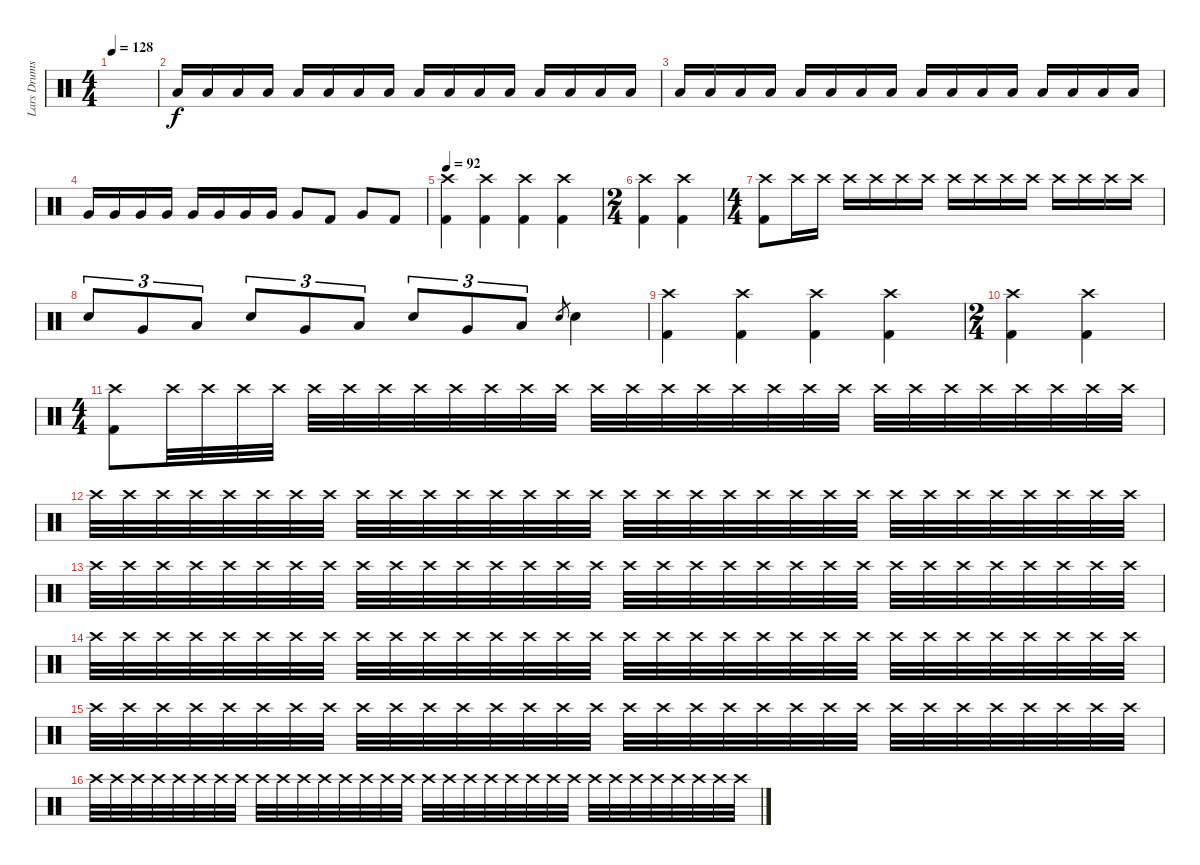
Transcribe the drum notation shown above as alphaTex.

\track ("Lars Drums" "Lars Drums") {instrument percussion}
\staff {score}
\articulation defaults
\ts (4 4)
\tempo 128
\clef neutral
\ks c
|
"Low Floor Tom (hit)".16 "Low Floor Tom (hit)".16 "Low Floor Tom (hit)".16 "Low Floor Tom (hit)".16 "Low Floor Tom (hit)".16 "Low Floor Tom (hit)".16 "Low Floor Tom (hit)".16 "Low Floor Tom (hit)".16 "Low Floor Tom (hit)".16 "Low Floor Tom (hit)".16 "Low Floor Tom (hit)".16 "Low Floor Tom (hit)".16 "Low Floor Tom (hit)".16 "Low Floor Tom (hit)".16 "Low Floor Tom (hit)".16 "Low Floor Tom (hit)".16 |
"Low Floor Tom (hit)".16 "Low Floor Tom (hit)".16 "Low Floor Tom (hit)".16 "Low Floor Tom (hit)".16 "Low Floor Tom (hit)".16 "Low Floor Tom (hit)".16 "Low Floor Tom (hit)".16 "Low Floor Tom (hit)".16 "Low Floor Tom (hit)".16 "Low Floor Tom (hit)".16 "Low Floor Tom (hit)".16 "Low Floor Tom (hit)".16 "Low Floor Tom (hit)".16 "Low Floor Tom (hit)".16 "Low Floor Tom (hit)".16 "Low Floor Tom (hit)".16 |
"Very Low Tom (hit)".16 "Very Low Tom (hit)".16 "Very Low Tom (hit)".16 "Very Low Tom (hit)".16 "Very Low Tom (hit)".16 "Very Low Tom (hit)".16 "Very Low Tom (hit)".16 "Very Low Tom (hit)".16 "Very Low Tom (hit)".8 "Kick (hit) 2".8 "Very Low Tom (hit)".8 "Kick (hit) 2".8 |
\tempo 92
("Crash high (hit)" "Kick (hit) 2").4 ("Crash high (hit)" "Kick (hit) 2").4 ("Crash high (hit)" "Kick (hit) 2").4 ("Crash high (hit)" "Kick (hit) 2").4 |
\ts (2 4)
("Crash high (hit)" "Kick (hit) 2").4 ("Crash high (hit)" "Kick (hit) 2").4 |
\ts (4 4)
("Crash high (hit)" "Kick (hit) 2").8 "Crash high (hit)".16 "Crash high (hit)".16 "Crash high (hit)".16 "Crash high (hit)".16 "Crash high (hit)".16 "Crash high (hit)".16 "Crash high (hit)".16 "Crash high (hit)".16 "Crash high (hit)".16 "Crash high (hit)".16 "Crash high (hit)".16 "Crash high (hit)".16 "Crash high (hit)".16 "Crash high (hit)".16 |
"Electric Snare (hit)".8{tu (3 2)} "Very Low Tom (hit)".8{tu (3 2)} "Low Floor Tom (hit)".8{tu (3 2)} "Electric Snare (hit)".8{tu (3 2)} "Very Low Tom (hit)".8{tu (3 2)} "Low Floor Tom (hit)".8{tu (3 2)} "Electric Snare (hit)".8{tu (3 2)} "Very Low Tom (hit)".8{tu (3 2)} "Low Floor Tom (hit)".8{tu (3 2)} "Electric Snare (hit)".8{gr} "Electric Snare (hit)".4 |
("Crash high (hit)" "Kick (hit) 2").4 ("Crash high (hit)" "Kick (hit) 2").4 ("Crash high (hit)" "Kick (hit) 2").4 ("Crash high (hit)" "Kick (hit) 2").4 |
\ts (2 4)
("Crash high (hit)" "Kick (hit) 2").4 ("Crash high (hit)" "Kick (hit) 2").4 |
\ts (4 4)
("Crash high (hit)" "Kick (hit) 2").8 "Crash high (hit)".32 "Crash high (hit)".32 "Crash high (hit)".32 "Crash high (hit)".32 "Crash high (hit)".32 "Crash high (hit)".32 "Crash high (hit)".32 "Crash high (hit)".32 "Crash high (hit)".32 "Crash high (hit)".32 "Crash high (hit)".32 "Crash high (hit)".32 "Crash high (hit)".32 "Crash high (hit)".32 "Crash high (hit)".32 "Crash high (hit)".32 "Crash high (hit)".32 "Crash high (hit)".32 "Crash high (hit)".32 "Crash high (hit)".32 "Crash high (hit)".32 "Crash high (hit)".32 "Crash high (hit)".32 "Crash high (hit)".32 "Crash high (hit)".32 "Crash high (hit)".32 "Crash high (hit)".32 "Crash high (hit)".32 |
"Crash high (hit)".32 "Crash high (hit)".32 "Crash high (hit)".32 "Crash high (hit)".32 "Crash high (hit)".32 "Crash high (hit)".32 "Crash high (hit)".32 "Crash high (hit)".32 "Crash high (hit)".32 "Crash high (hit)".32 "Crash high (hit)".32 "Crash high (hit)".32 "Crash high (hit)".32 "Crash high (hit)".32 "Crash high (hit)".32 "Crash high (hit)".32 "Crash high (hit)".32 "Crash high (hit)".32 "Crash high (hit)".32 "Crash high (hit)".32 "Crash high (hit)".32 "Crash high (hit)".32 "Crash high (hit)".32 "Crash high (hit)".32 "Crash high (hit)".32 "Crash high (hit)".32 "Crash high (hit)".32 "Crash high (hit)".32 "Crash high (hit)".32 "Crash high (hit)".32 "Crash high (hit)".32 "Crash high (hit)".32 |
"Crash high (hit)".32 "Crash high (hit)".32 "Crash high (hit)".32 "Crash high (hit)".32 "Crash high (hit)".32 "Crash high (hit)".32 "Crash high (hit)".32 "Crash high (hit)".32 "Crash high (hit)".32 "Crash high (hit)".32 "Crash high (hit)".32 "Crash high (hit)".32 "Crash high (hit)".32 "Crash high (hit)".32 "Crash high (hit)".32 "Crash high (hit)".32 "Crash high (hit)".32 "Crash high (hit)".32 "Crash high (hit)".32 "Crash high (hit)".32 "Crash high (hit)".32 "Crash high (hit)".32 "Crash high (hit)".32 "Crash high (hit)".32 "Crash high (hit)".32 "Crash high (hit)".32 "Crash high (hit)".32 "Crash high (hit)".32 "Crash high (hit)".32 "Crash high (hit)".32 "Crash high (hit)".32 "Crash high (hit)".32 |
"Crash high (hit)".32 "Crash high (hit)".32 "Crash high (hit)".32 "Crash high (hit)".32 "Crash high (hit)".32 "Crash high (hit)".32 "Crash high (hit)".32 "Crash high (hit)".32 "Crash high (hit)".32 "Crash high (hit)".32 "Crash high (hit)".32 "Crash high (hit)".32 "Crash high (hit)".32 "Crash high (hit)".32 "Crash high (hit)".32 "Crash high (hit)".32 "Crash high (hit)".32 "Crash high (hit)".32 "Crash high (hit)".32 "Crash high (hit)".32 "Crash high (hit)".32 "Crash high (hit)".32 "Crash high (hit)".32 "Crash high (hit)".32 "Crash high (hit)".32 "Crash high (hit)".32 "Crash high (hit)".32 "Crash high (hit)".32 "Crash high (hit)".32 "Crash high (hit)".32 "Crash high (hit)".32 "Crash high (hit)".32 |
"Crash high (hit)".32 "Crash high (hit)".32 "Crash high (hit)".32 "Crash high (hit)".32 "Crash high (hit)".32 "Crash high (hit)".32 "Crash high (hit)".32 "Crash high (hit)".32 "Crash high (hit)".32 "Crash high (hit)".32 "Crash high (hit)".32 "Crash high (hit)".32 "Crash high (hit)".32 "Crash high (hit)".32 "Crash high (hit)".32 "Crash high (hit)".32 "Crash high (hit)".32 "Crash high (hit)".32 "Crash high (hit)".32 "Crash high (hit)".32 "Crash high (hit)".32 "Crash high (hit)".32 "Crash high (hit)".32 "Crash high (hit)".32 "Crash high (hit)".32 "Crash high (hit)".32 "Crash high (hit)".32 "Crash high (hit)".32 "Crash high (hit)".32 "Crash high (hit)".32 "Crash high (hit)".32 "Crash high (hit)".32 |
"Crash high (hit)".32 "Crash high (hit)".32 "Crash high (hit)".32 "Crash high (hit)".32 "Crash high (hit)".32 "Crash high (hit)".32 "Crash high (hit)".32 "Crash high (hit)".32 "Crash high (hit)".32 "Crash high (hit)".32 "Crash high (hit)".32 "Crash high (hit)".32 "Crash high (hit)".32 "Crash high (hit)".32 "Crash high (hit)".32 "Crash high (hit)".32 "Crash high (hit)".32 "Crash high (hit)".32 "Crash high (hit)".32 "Crash high (hit)".32 "Crash high (hit)".32 "Crash high (hit)".32 "Crash high (hit)".32 "Crash high (hit)".32 "Crash high (hit)".32 "Crash high (hit)".32 "Crash high (hit)".32 "Crash high (hit)".32 "Crash high (hit)".32 "Crash high (hit)".32 "Crash high (hit)".32 "Crash high (hit)".32
